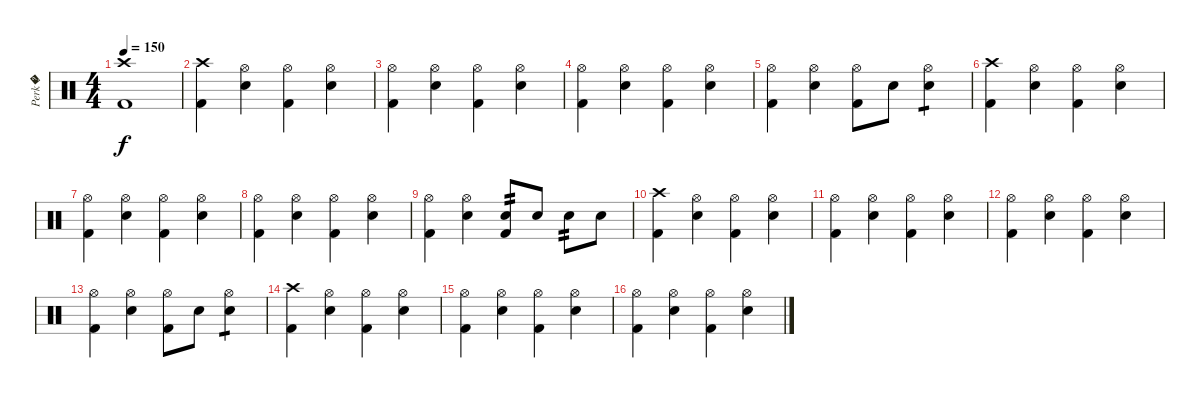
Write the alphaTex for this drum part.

\track ("Perk�" "Perk�") {instrument percussion}
\staff {score}
\articulation defaults
\ts (4 4)
\tempo 150
\clef neutral
\ks c
("Kick (hit) 2" "Crash high (hit)").1{dy f} |
("Crash high (hit)" "Kick (hit) 2").4 ("Hi-Hat (open)" "Snare (hit) 2").4 ("Hi-Hat (open)" "Kick (hit) 2").4 ("Hi-Hat (open)" "Snare (hit) 2").4 |
("Hi-Hat (open)" "Kick (hit) 2").4 ("Hi-Hat (open)" "Snare (hit) 2").4 ("Hi-Hat (open)" "Kick (hit) 2").4 ("Hi-Hat (open)" "Snare (hit) 2").4 |
("Hi-Hat (open)" "Kick (hit) 2").4 ("Hi-Hat (open)" "Snare (hit) 2").4 ("Hi-Hat (open)" "Kick (hit) 2").4 ("Hi-Hat (open)" "Snare (hit) 2").4 |
("Hi-Hat (open)" "Kick (hit) 2").4 ("Hi-Hat (open)" "Snare (hit) 2").4 ("Hi-Hat (open)" "Kick (hit) 2").8 "Snare (hit) 2".8 ("Hi-Hat (open)" "Snare (hit) 2").4{tp 1} |
("Crash high (hit)" "Kick (hit) 2").4 ("Hi-Hat (open)" "Snare (hit) 2").4 ("Hi-Hat (open)" "Kick (hit) 2").4 ("Hi-Hat (open)" "Snare (hit) 2").4 |
("Hi-Hat (open)" "Kick (hit) 2").4 ("Hi-Hat (open)" "Snare (hit) 2").4 ("Hi-Hat (open)" "Kick (hit) 2").4 ("Hi-Hat (open)" "Snare (hit) 2").4 |
("Hi-Hat (open)" "Kick (hit) 2").4 ("Hi-Hat (open)" "Snare (hit) 2").4 ("Hi-Hat (open)" "Kick (hit) 2").4 ("Hi-Hat (open)" "Snare (hit) 2").4 |
("Hi-Hat (open)" "Kick (hit) 2").4 ("Hi-Hat (open)" "Snare (hit) 2").4 ("Snare (hit) 2" "Kick (hit) 2").8{tp 2} "Snare (hit) 2".8 "Snare (hit) 2".8{tp 2} "Snare (hit) 2".8 |
("Crash high (hit)" "Kick (hit) 2").4 ("Hi-Hat (open)" "Snare (hit) 2").4 ("Hi-Hat (open)" "Kick (hit) 2").4 ("Hi-Hat (open)" "Snare (hit) 2").4 |
("Hi-Hat (open)" "Kick (hit) 2").4 ("Hi-Hat (open)" "Snare (hit) 2").4 ("Hi-Hat (open)" "Kick (hit) 2").4 ("Hi-Hat (open)" "Snare (hit) 2").4 |
("Hi-Hat (open)" "Kick (hit) 2").4 ("Hi-Hat (open)" "Snare (hit) 2").4 ("Hi-Hat (open)" "Kick (hit) 2").4 ("Hi-Hat (open)" "Snare (hit) 2").4 |
("Hi-Hat (open)" "Kick (hit) 2").4 ("Hi-Hat (open)" "Snare (hit) 2").4 ("Hi-Hat (open)" "Kick (hit) 2").8 "Snare (hit) 2".8 ("Hi-Hat (open)" "Snare (hit) 2").4{tp 1} |
("Crash high (hit)" "Kick (hit) 2").4 ("Hi-Hat (open)" "Snare (hit) 2").4 ("Hi-Hat (open)" "Kick (hit) 2").4 ("Hi-Hat (open)" "Snare (hit) 2").4 |
("Hi-Hat (open)" "Kick (hit) 2").4 ("Hi-Hat (open)" "Snare (hit) 2").4 ("Hi-Hat (open)" "Kick (hit) 2").4 ("Hi-Hat (open)" "Snare (hit) 2").4 |
("Hi-Hat (open)" "Kick (hit) 2").4 ("Hi-Hat (open)" "Snare (hit) 2").4 ("Hi-Hat (open)" "Kick (hit) 2").4 ("Hi-Hat (open)" "Snare (hit) 2").4
